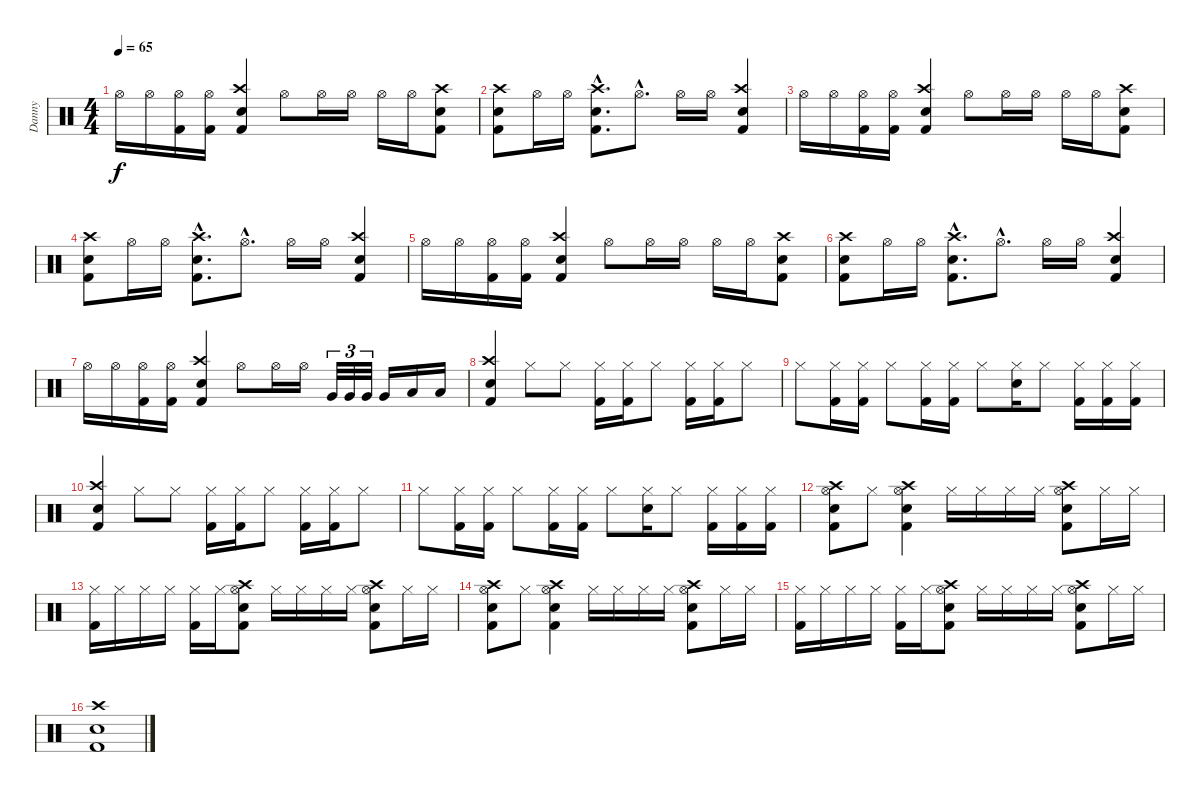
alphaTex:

\track ("Danny" "Danny") {instrument percussion}
\staff {score}
\articulation defaults
\ts (4 4)
\tempo 65
\clef neutral
\ks c "Hi-Hat (open)".16{dy f} "Hi-Hat (open)".16
("Hi-Hat (open)" "Kick (hit) 2").16 ("Hi-Hat (open)" "Kick (hit) 2").16 ("Crash high (hit)" "Snare (hit) 2" "Kick (hit) 2").4 "Hi-Hat (open)".8 "Hi-Hat (open)".16 "Hi-Hat (open)".16 "Hi-Hat (open)".16 "Hi-Hat (open)".16 ("Crash high (hit)" "Snare (hit) 2" "Kick (hit) 2").8 |
("Crash high (hit)" "Snare (hit) 2" "Kick (hit) 2").8 "Hi-Hat (open)".16 "Hi-Hat (open)".16 ("Crash high (hit)"{hac} "Snare (hit) 2"{hac} "Kick (hit) 2"{hac}).8{d} "Hi-Hat (open)"{hac}.8{d} "Hi-Hat (open)".16 "Hi-Hat (open)".16 ("Crash high (hit)" "Snare (hit) 2" "Kick (hit) 2").4 |
"Hi-Hat (open)".16 "Hi-Hat (open)".16 ("Hi-Hat (open)" "Kick (hit) 2").16 ("Hi-Hat (open)" "Kick (hit) 2").16 ("Crash high (hit)" "Snare (hit) 2" "Kick (hit) 2").4 "Hi-Hat (open)".8 "Hi-Hat (open)".16 "Hi-Hat (open)".16 "Hi-Hat (open)".16 "Hi-Hat (open)".16 ("Crash high (hit)" "Snare (hit) 2" "Kick (hit) 2").8 |
("Crash high (hit)" "Snare (hit) 2" "Kick (hit) 2").8 "Hi-Hat (open)".16 "Hi-Hat (open)".16 ("Crash high (hit)"{hac} "Snare (hit) 2"{hac} "Kick (hit) 2"{hac}).8{d} "Hi-Hat (open)"{hac}.8{d} "Hi-Hat (open)".16 "Hi-Hat (open)".16 ("Crash high (hit)" "Snare (hit) 2" "Kick (hit) 2").4 |
"Hi-Hat (open)".16 "Hi-Hat (open)".16 ("Hi-Hat (open)" "Kick (hit) 2").16 ("Hi-Hat (open)" "Kick (hit) 2").16 ("Crash high (hit)" "Snare (hit) 2" "Kick (hit) 2").4 "Hi-Hat (open)".8 "Hi-Hat (open)".16 "Hi-Hat (open)".16 "Hi-Hat (open)".16 "Hi-Hat (open)".16 ("Crash high (hit)" "Snare (hit) 2" "Kick (hit) 2").8 |
("Crash high (hit)" "Snare (hit) 2" "Kick (hit) 2").8 "Hi-Hat (open)".16 "Hi-Hat (open)".16 ("Crash high (hit)"{hac} "Snare (hit) 2"{hac} "Kick (hit) 2"{hac}).8{d} "Hi-Hat (open)"{hac}.8{d} "Hi-Hat (open)".16 "Hi-Hat (open)".16 ("Crash high (hit)" "Snare (hit) 2" "Kick (hit) 2").4 |
"Hi-Hat (open)".16 "Hi-Hat (open)".16 ("Hi-Hat (open)" "Kick (hit) 2").16 ("Hi-Hat (open)" "Kick (hit) 2").16 ("Crash high (hit)" "Snare (hit) 2" "Kick (hit) 2").4 "Hi-Hat (open)".8 "Hi-Hat (open)".16 "Hi-Hat (open)".16 "Very Low Tom (hit)".32{tu (3 2)} "Very Low Tom (hit)".32{tu (3 2)} "Very Low Tom (hit)".32{tu (3 2)} "Very Low Tom (hit)".16 "Low Floor Tom (hit)".16 "Low Floor Tom (hit)".16 |
("Crash high (hit)" "Snare (hit) 2" "Kick (hit) 2").4 "Hi-Hat (closed)".8 "Hi-Hat (closed)".8 ("Hi-Hat (closed)" "Kick (hit) 2").16 ("Hi-Hat (closed)" "Kick (hit) 2").16 "Hi-Hat (closed)".8 ("Hi-Hat (closed)" "Kick (hit) 2").16 ("Hi-Hat (closed)" "Kick (hit) 2").16 "Hi-Hat (closed)".8 |
"Hi-Hat (closed)".8 ("Hi-Hat (closed)" "Kick (hit) 2").16 ("Hi-Hat (closed)" "Kick (hit) 2").16 "Hi-Hat (closed)".8 ("Hi-Hat (closed)" "Kick (hit) 2").16 ("Hi-Hat (closed)" "Kick (hit) 2").16 "Hi-Hat (closed)".8 ("Hi-Hat (closed)" "Snare (hit) 2").16 "Hi-Hat (closed)".8 ("Hi-Hat (closed)" "Kick (hit) 2").16 ("Hi-Hat (closed)" "Kick (hit) 2").16 ("Hi-Hat (closed)" "Kick (hit) 2").16 |
("Crash high (hit)" "Snare (hit) 2" "Kick (hit) 2").4 "Hi-Hat (closed)".8 "Hi-Hat (closed)".8 ("Hi-Hat (closed)" "Kick (hit) 2").16 ("Hi-Hat (closed)" "Kick (hit) 2").16 "Hi-Hat (closed)".8 ("Hi-Hat (closed)" "Kick (hit) 2").16 ("Hi-Hat (closed)" "Kick (hit) 2").16 "Hi-Hat (closed)".8 |
"Hi-Hat (closed)".8 ("Hi-Hat (closed)" "Kick (hit) 2").16 ("Hi-Hat (closed)" "Kick (hit) 2").16 "Hi-Hat (closed)".8 ("Hi-Hat (closed)" "Kick (hit) 2").16 ("Hi-Hat (closed)" "Kick (hit) 2").16 "Hi-Hat (closed)".8 ("Hi-Hat (closed)" "Snare (hit) 2").16 "Hi-Hat (closed)".8 ("Hi-Hat (closed)" "Kick (hit) 2").16 ("Hi-Hat (closed)" "Kick (hit) 2").16 ("Hi-Hat (closed)" "Kick (hit) 2").16 |
("Crash high (hit)" "Hi-Hat (open)" "Snare (hit) 2" "Kick (hit) 2").8 "Hi-Hat (closed)".8 ("Crash high (hit)" "Hi-Hat (open)" "Snare (hit) 2" "Kick (hit) 2").4 "Hi-Hat (closed)".16 "Hi-Hat (closed)".16 "Hi-Hat (closed)".16 "Hi-Hat (closed)".16 ("Crash high (hit)" "Hi-Hat (open)" "Snare (hit) 2" "Kick (hit) 2").8 "Hi-Hat (closed)".16 "Hi-Hat (closed)".16 |
("Hi-Hat (closed)" "Kick (hit) 2").16 "Hi-Hat (closed)".16 "Hi-Hat (closed)".16 "Hi-Hat (closed)".16 ("Hi-Hat (closed)" "Kick (hit) 2").16 "Hi-Hat (closed)".16 ("Crash high (hit)" "Hi-Hat (open)" "Snare (hit) 2" "Kick (hit) 2").8 "Hi-Hat (closed)".16 "Hi-Hat (closed)".16 "Hi-Hat (closed)".16 "Hi-Hat (closed)".16 ("Crash high (hit)" "Hi-Hat (open)" "Snare (hit) 2" "Kick (hit) 2").8 "Hi-Hat (closed)".16 "Hi-Hat (closed)".16 |
("Crash high (hit)" "Hi-Hat (open)" "Snare (hit) 2" "Kick (hit) 2").8 "Hi-Hat (closed)".8 ("Crash high (hit)" "Hi-Hat (open)" "Snare (hit) 2" "Kick (hit) 2").4 "Hi-Hat (closed)".16 "Hi-Hat (closed)".16 "Hi-Hat (closed)".16 "Hi-Hat (closed)".16 ("Crash high (hit)" "Hi-Hat (open)" "Snare (hit) 2" "Kick (hit) 2").8 "Hi-Hat (closed)".16 "Hi-Hat (closed)".16 |
("Hi-Hat (closed)" "Kick (hit) 2").16 "Hi-Hat (closed)".16 "Hi-Hat (closed)".16 "Hi-Hat (closed)".16 ("Hi-Hat (closed)" "Kick (hit) 2").16 "Hi-Hat (closed)".16 ("Crash high (hit)" "Hi-Hat (open)" "Snare (hit) 2" "Kick (hit) 2").8 "Hi-Hat (closed)".16 "Hi-Hat (closed)".16 "Hi-Hat (closed)".16 "Hi-Hat (closed)".16 ("Crash high (hit)" "Hi-Hat (open)" "Snare (hit) 2" "Kick (hit) 2").8 "Hi-Hat (closed)".16 "Hi-Hat (closed)".16 |
("Crash high (hit)" "Snare (hit) 2" "Kick (hit) 2").1
